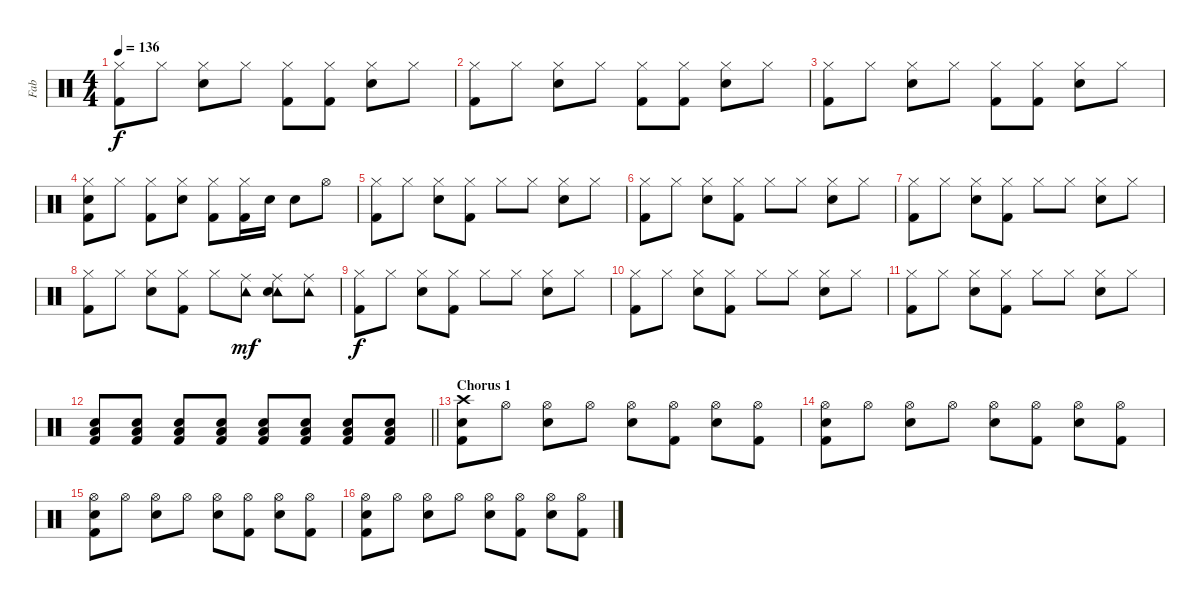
\track ("Fab" "Fab") {instrument percussion}
\staff {score}
\articulation defaults
\ts (4 4)
\tempo 136
\clef neutral
\ks c
("Hi-Hat (closed)" "Kick (hit) 2").8{dy f} "Hi-Hat (closed)".8 ("Hi-Hat (closed)" "Snare (hit) 2").8 "Hi-Hat (closed)".8 ("Hi-Hat (closed)" "Kick (hit) 2").8 ("Hi-Hat (closed)" "Kick (hit) 2").8 ("Hi-Hat (closed)" "Snare (hit) 2").8 "Hi-Hat (closed)".8 |
("Hi-Hat (closed)" "Kick (hit) 2").8 "Hi-Hat (closed)".8 ("Hi-Hat (closed)" "Snare (hit) 2").8 "Hi-Hat (closed)".8 ("Hi-Hat (closed)" "Kick (hit) 2").8 ("Hi-Hat (closed)" "Kick (hit) 2").8 ("Hi-Hat (closed)" "Snare (hit) 2").8 "Hi-Hat (closed)".8 |
("Hi-Hat (closed)" "Kick (hit) 2").8 "Hi-Hat (closed)".8 ("Hi-Hat (closed)" "Snare (hit) 2").8 "Hi-Hat (closed)".8 ("Hi-Hat (closed)" "Kick (hit) 2").8 ("Hi-Hat (closed)" "Kick (hit) 2").8 ("Hi-Hat (closed)" "Snare (hit) 2").8 "Hi-Hat (closed)".8 |
("Hi-Hat (closed)" "Snare (hit) 2" "Kick (hit) 2").8 "Hi-Hat (closed)".8 ("Hi-Hat (closed)" "Kick (hit) 2").8 ("Hi-Hat (closed)" "Snare (hit) 2").8 ("Hi-Hat (closed)" "Kick (hit) 2").8 ("Hi-Hat (closed)" "Kick (hit) 2").16 "Snare (hit) 2".16 "Snare (hit) 2".8 "Hi-Hat (open)".8 |
("Hi-Hat (closed)" "Kick (hit) 2").8 "Hi-Hat (closed)".8 ("Hi-Hat (closed)" "Snare (hit) 2").8 ("Hi-Hat (closed)" "Kick (hit) 2").8 "Hi-Hat (closed)".8 "Hi-Hat (closed)".8 ("Hi-Hat (closed)" "Snare (hit) 2").8 "Hi-Hat (closed)".8 |
("Hi-Hat (closed)" "Kick (hit) 2").8 "Hi-Hat (closed)".8 ("Hi-Hat (closed)" "Snare (hit) 2").8 ("Hi-Hat (closed)" "Kick (hit) 2").8 "Hi-Hat (closed)".8 "Hi-Hat (closed)".8 ("Hi-Hat (closed)" "Snare (hit) 2").8 "Hi-Hat (closed)".8 |
("Hi-Hat (closed)" "Kick (hit) 2").8 "Hi-Hat (closed)".8 ("Hi-Hat (closed)" "Snare (hit) 2").8 ("Hi-Hat (closed)" "Kick (hit) 2").8 "Hi-Hat (closed)".8 "Hi-Hat (closed)".8 ("Hi-Hat (closed)" "Snare (hit) 2").8 "Hi-Hat (closed)".8 |
("Hi-Hat (closed)" "Kick (hit) 2").8 "Hi-Hat (closed)".8 ("Hi-Hat (closed)" "Snare (hit) 2").8 ("Hi-Hat (closed)" "Kick (hit) 2").8 "Hi-Hat (closed)".8 ("Tambourine (hit)" "Ride (middle)").8{dy mf} ("Tambourine (hit)" "Ride (middle)" "Snare (hit) 2").8 ("Tambourine (hit)" "Ride (middle)").8 |
("Hi-Hat (closed)" "Kick (hit) 2").8{dy f} "Hi-Hat (closed)".8 ("Hi-Hat (closed)" "Snare (hit) 2").8 ("Hi-Hat (closed)" "Kick (hit) 2").8 "Hi-Hat (closed)".8 "Hi-Hat (closed)".8 ("Hi-Hat (closed)" "Snare (hit) 2").8 "Hi-Hat (closed)".8 |
("Hi-Hat (closed)" "Kick (hit) 2").8 "Hi-Hat (closed)".8 ("Hi-Hat (closed)" "Snare (hit) 2").8 ("Hi-Hat (closed)" "Kick (hit) 2").8 "Hi-Hat (closed)".8 "Hi-Hat (closed)".8 ("Hi-Hat (closed)" "Snare (hit) 2").8 "Hi-Hat (closed)".8 |
("Hi-Hat (closed)" "Kick (hit) 2").8 "Hi-Hat (closed)".8 ("Hi-Hat (closed)" "Snare (hit) 2").8 ("Hi-Hat (closed)" "Kick (hit) 2").8 "Hi-Hat (closed)".8 "Hi-Hat (closed)".8 ("Hi-Hat (closed)" "Snare (hit) 2").8 "Hi-Hat (closed)".8 |
\barLineRight lightlight
("Low Floor Tom (hit)" "Snare (hit) 2" "Kick (hit) 2").8 ("Low Floor Tom (hit)" "Snare (hit) 2" "Kick (hit) 2").8 ("Low Floor Tom (hit)" "Snare (hit) 2" "Kick (hit) 2").8 ("Low Floor Tom (hit)" "Snare (hit) 2" "Kick (hit) 2").8 ("Low Floor Tom (hit)" "Snare (hit) 2" "Kick (hit) 2").8 ("Low Floor Tom (hit)" "Snare (hit) 2" "Kick (hit) 2").8 ("Low Floor Tom (hit)" "Snare (hit) 2" "Kick (hit) 2").8 ("Low Floor Tom (hit)" "Snare (hit) 2" "Kick (hit) 2").8 |
\section ("" "Chorus 1")
("Crash high (hit)" "Snare (hit) 2" "Kick (hit) 2").8 "Hi-Hat (open)".8 ("Hi-Hat (open)" "Snare (hit) 2").8 "Hi-Hat (open)".8 ("Hi-Hat (open)" "Snare (hit) 2").8 ("Hi-Hat (open)" "Kick (hit) 2").8 ("Hi-Hat (open)" "Snare (hit) 2").8 ("Hi-Hat (open)" "Kick (hit) 2").8 |
("Hi-Hat (open)" "Snare (hit) 2" "Kick (hit) 2").8 "Hi-Hat (open)".8 ("Hi-Hat (open)" "Snare (hit) 2").8 "Hi-Hat (open)".8 ("Hi-Hat (open)" "Snare (hit) 2").8 ("Hi-Hat (open)" "Kick (hit) 2").8 ("Hi-Hat (open)" "Snare (hit) 2").8 ("Hi-Hat (open)" "Kick (hit) 2").8 |
("Hi-Hat (open)" "Snare (hit) 2" "Kick (hit) 2").8 "Hi-Hat (open)".8 ("Hi-Hat (open)" "Snare (hit) 2").8 "Hi-Hat (open)".8 ("Hi-Hat (open)" "Snare (hit) 2").8 ("Hi-Hat (open)" "Kick (hit) 2").8 ("Hi-Hat (open)" "Snare (hit) 2").8 ("Hi-Hat (open)" "Kick (hit) 2").8 |
("Hi-Hat (open)" "Snare (hit) 2" "Kick (hit) 2").8 "Hi-Hat (open)".8 ("Hi-Hat (open)" "Snare (hit) 2").8 "Hi-Hat (open)".8 ("Hi-Hat (open)" "Snare (hit) 2").8 ("Hi-Hat (open)" "Kick (hit) 2").8 ("Hi-Hat (open)" "Snare (hit) 2").8 ("Hi-Hat (open)" "Kick (hit) 2").8
